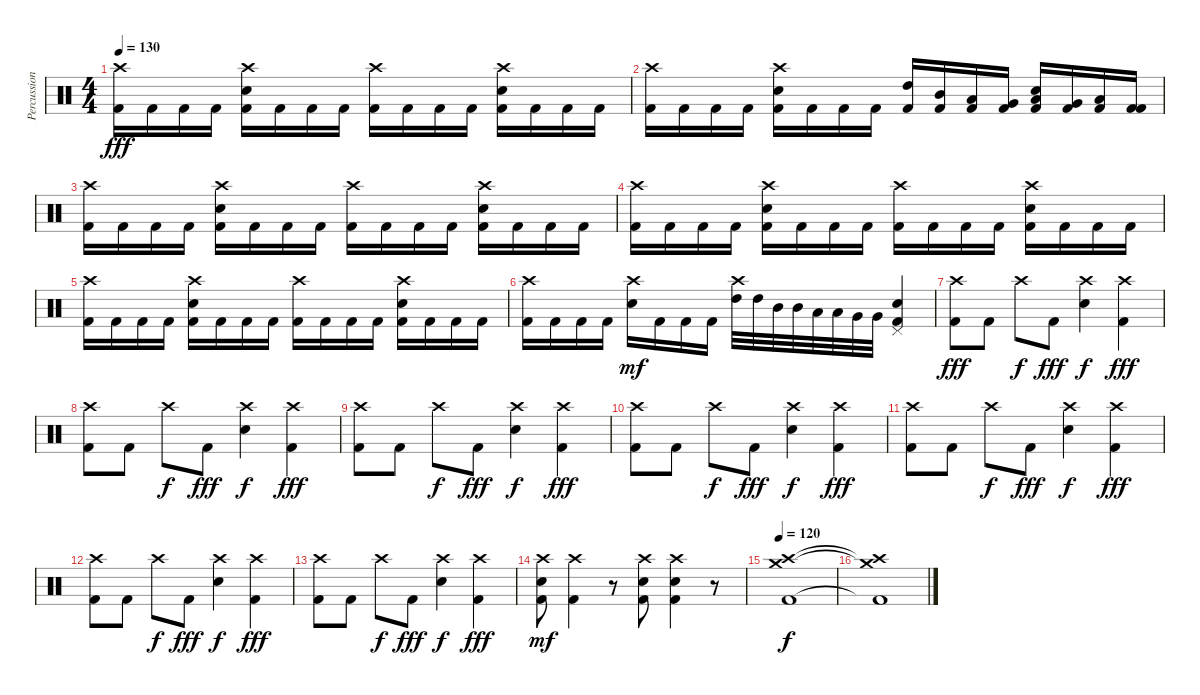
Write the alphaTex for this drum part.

\track ("Percussion" "Percussion") {instrument percussion}
\staff {score}
\articulation defaults
\ts (4 4)
\tempo 130
\clef neutral
\ks c
("Crash high (hit)" "Kick (hit) 2").16{dy fff} "Kick (hit) 2".16 "Kick (hit) 2".16 "Kick (hit) 2".16 ("Crash high (hit)" "Electric Snare (hit)" "Kick (hit) 2").16 "Kick (hit) 2".16 "Kick (hit) 2".16 "Kick (hit) 2".16 ("Crash high (hit)" "Kick (hit) 2").16 "Kick (hit) 2".16 "Kick (hit) 2".16 "Kick (hit) 2".16 ("Crash high (hit)" "Electric Snare (hit)" "Kick (hit) 2").16 "Kick (hit) 2".16 "Kick (hit) 2".16 "Kick (hit) 2".16 |
("Crash high (hit)" "Kick (hit) 2").16 "Kick (hit) 2".16 "Kick (hit) 2".16 "Kick (hit) 2".16 ("Crash high (hit)" "Electric Snare (hit)" "Kick (hit) 2").16 "Kick (hit) 2".16 "Kick (hit) 2".16 "Kick (hit) 2".16 ("High Tom (hit)" "Kick (hit) 2").16 ("Mid Tom (hit)" "Kick (hit) 2").16 ("Low Tom (hit)" "Kick (hit) 2").16 ("Very Low Tom (hit)" "Kick (hit) 2").16 ("Low Tom (hit)" "Electric Snare (hit)" "Kick (hit) 2").16 ("Very Low Tom (hit)" "Kick (hit) 2").16 ("Low Floor Tom (hit)" "Kick (hit) 2").16 ("Kick (hit) 2" "Kick (hit) 2").16 |
("Crash high (hit)" "Kick (hit) 2").16 "Kick (hit) 2".16 "Kick (hit) 2".16 "Kick (hit) 2".16 ("Crash high (hit)" "Electric Snare (hit)" "Kick (hit) 2").16 "Kick (hit) 2".16 "Kick (hit) 2".16 "Kick (hit) 2".16 ("Crash high (hit)" "Kick (hit) 2").16 "Kick (hit) 2".16 "Kick (hit) 2".16 "Kick (hit) 2".16 ("Crash high (hit)" "Electric Snare (hit)" "Kick (hit) 2").16 "Kick (hit) 2".16 "Kick (hit) 2".16 "Kick (hit) 2".16 |
("Crash high (hit)" "Kick (hit) 2").16 "Kick (hit) 2".16 "Kick (hit) 2".16 "Kick (hit) 2".16 ("Crash high (hit)" "Electric Snare (hit)" "Kick (hit) 2").16 "Kick (hit) 2".16 "Kick (hit) 2".16 "Kick (hit) 2".16 ("Crash high (hit)" "Kick (hit) 2").16 "Kick (hit) 2".16 "Kick (hit) 2".16 "Kick (hit) 2".16 ("Crash high (hit)" "Electric Snare (hit)" "Kick (hit) 2").16 "Kick (hit) 2".16 "Kick (hit) 2".16 "Kick (hit) 2".16 |
("Crash high (hit)" "Kick (hit) 2").16 "Kick (hit) 2".16 "Kick (hit) 2".16 "Kick (hit) 2".16 ("Crash high (hit)" "Electric Snare (hit)" "Kick (hit) 2").16 "Kick (hit) 2".16 "Kick (hit) 2".16 "Kick (hit) 2".16 ("Crash high (hit)" "Kick (hit) 2").16 "Kick (hit) 2".16 "Kick (hit) 2".16 "Kick (hit) 2".16 ("Crash high (hit)" "Electric Snare (hit)" "Kick (hit) 2").16 "Kick (hit) 2".16 "Kick (hit) 2".16 "Kick (hit) 2".16 |
("Crash high (hit)" "Kick (hit) 2").16 "Kick (hit) 2".16 "Kick (hit) 2".16 "Kick (hit) 2".16 ("Crash high (hit)" "Electric Snare (hit)").16{dy mf} "Kick (hit) 2".16 "Kick (hit) 2".16 "Kick (hit) 2".16 ("Crash high (hit)" "High Tom (hit)").32 "High Tom (hit)".32 "Mid Tom (hit)".32 "Mid Tom (hit)".32 "Low Tom (hit)".32 "Low Tom (hit)".32 "Very Low Tom (hit)".32 "Very Low Tom (hit)".32 ("Pedal Hi-Hat (hit)" "Electric Snare (hit)" "Kick (hit) 2").4 |
("Crash high (hit)" "Kick (hit) 2").8{dy fff} "Kick (hit) 2".8 "Crash high (hit)".8{dy f} "Kick (hit) 2".8{dy fff} ("Crash high (hit)" "Electric Snare (hit)").4{dy f} ("Crash high (hit)" "Kick (hit) 2").4{dy fff} |
("Crash high (hit)" "Kick (hit) 2").8 "Kick (hit) 2".8 "Crash high (hit)".8{dy f} "Kick (hit) 2".8{dy fff} ("Crash high (hit)" "Electric Snare (hit)").4{dy f} ("Crash high (hit)" "Kick (hit) 2").4{dy fff} |
("Crash high (hit)" "Kick (hit) 2").8 "Kick (hit) 2".8 "Crash high (hit)".8{dy f} "Kick (hit) 2".8{dy fff} ("Crash high (hit)" "Electric Snare (hit)").4{dy f} ("Crash high (hit)" "Kick (hit) 2").4{dy fff} |
("Crash high (hit)" "Kick (hit) 2").8 "Kick (hit) 2".8 "Crash high (hit)".8{dy f} "Kick (hit) 2".8{dy fff} ("Crash high (hit)" "Electric Snare (hit)").4{dy f} ("Crash high (hit)" "Kick (hit) 2").4{dy fff} |
("Crash high (hit)" "Kick (hit) 2").8 "Kick (hit) 2".8 "Crash high (hit)".8{dy f} "Kick (hit) 2".8{dy fff} ("Crash high (hit)" "Electric Snare (hit)").4{dy f} ("Crash high (hit)" "Kick (hit) 2").4{dy fff} |
("Crash high (hit)" "Kick (hit) 2").8 "Kick (hit) 2".8 "Crash high (hit)".8{dy f} "Kick (hit) 2".8{dy fff} ("Crash high (hit)" "Electric Snare (hit)").4{dy f} ("Crash high (hit)" "Kick (hit) 2").4{dy fff} |
("Crash high (hit)" "Kick (hit) 2").8 "Kick (hit) 2".8 "Crash high (hit)".8{dy f} "Kick (hit) 2".8{dy fff} ("Crash high (hit)" "Electric Snare (hit)").4{dy f} ("Crash high (hit)" "Kick (hit) 2").4{dy fff} |
("Crash high (hit)" "Electric Snare (hit)" "Kick (hit) 2").8{dy mf} ("Crash high (hit)" "Kick (hit) 2").4 r.8 ("Crash high (hit)" "Electric Snare (hit)" "Kick (hit) 2").8 ("Crash high (hit)" "Electric Snare (hit)" "Kick (hit) 2").4 r.8 |
\tempo 120
("Crash high (hit)" "Crash medium (hit)" "Kick (hit) 2").1{dy f} |
("Crash high (hit)"{t} "Crash medium (hit)"{t} "Kick (hit) 2"{t}).1
